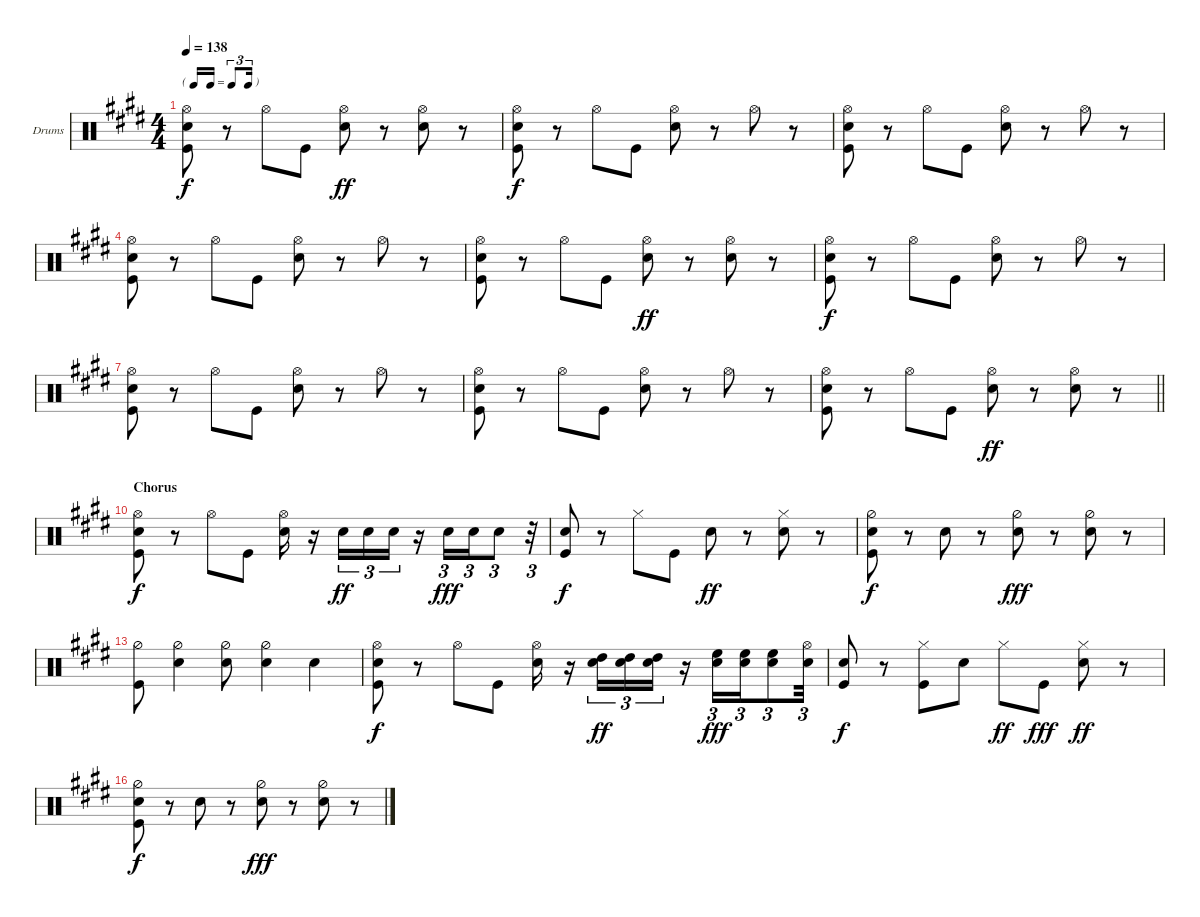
\bracketExtendMode nobrackets
\firstSystemTrackNameOrientation horizontal
\otherSystemsTrackNameOrientation horizontal
\defaultBarNumberDisplay FirstOfSystem
\track ("Drumkit" "Drums") {instrument percussion}
\staff {score}
\articulation defaults
\ts (4 4)
\tf triplet16th
\tempo 138
\clef neutral
\ks c#minor
("Hi-Hat (open)" "Snare (hit) 2" "Kick (hit)").8{dy f} r.8 "Hi-Hat (open)".8 "Kick (hit)".8 ("Snare (hit) 2" "Hi-Hat (open)").8{dy ff} r.8 ("Hi-Hat (open)" "Snare (hit) 2").8 r.8 |
\ks e
("Hi-Hat (open)" "Snare (hit) 2" "Kick (hit)").8{dy f} r.8 "Hi-Hat (open)".8 "Kick (hit)".8 ("Snare (hit) 2" "Hi-Hat (open)").8 r.8 "Hi-Hat (open)".8 r.8 |
\ks c#minor
("Hi-Hat (open)" "Snare (hit) 2" "Kick (hit)").8 r.8 "Hi-Hat (open)".8 "Kick (hit)".8 ("Snare (hit) 2" "Hi-Hat (open)").8 r.8 "Hi-Hat (open)".8 r.8 |
("Hi-Hat (open)" "Snare (hit) 2" "Kick (hit)").8 r.8 "Hi-Hat (open)".8 "Kick (hit)".8 ("Snare (hit) 2" "Hi-Hat (open)").8 r.8 "Hi-Hat (open)".8 r.8 |
("Hi-Hat (open)" "Snare (hit) 2" "Kick (hit)").8 r.8 "Hi-Hat (open)".8 "Kick (hit)".8 ("Snare (hit) 2" "Hi-Hat (open)").8{dy ff} r.8 ("Hi-Hat (open)" "Snare (hit) 2").8 r.8 |
\ks e
("Hi-Hat (open)" "Snare (hit) 2" "Kick (hit)").8{dy f} r.8 "Hi-Hat (open)".8 "Kick (hit)".8 ("Snare (hit) 2" "Hi-Hat (open)").8 r.8 "Hi-Hat (open)".8 r.8 |
\ks c#minor
("Hi-Hat (open)" "Snare (hit) 2" "Kick (hit)").8 r.8 "Hi-Hat (open)".8 "Kick (hit)".8 ("Snare (hit) 2" "Hi-Hat (open)").8 r.8 "Hi-Hat (open)".8 r.8 |
("Hi-Hat (open)" "Snare (hit) 2" "Kick (hit)").8 r.8 "Hi-Hat (open)".8 "Kick (hit)".8 ("Snare (hit) 2" "Hi-Hat (open)").8 r.8 "Hi-Hat (open)".8 r.8 |
\barLineRight lightlight
("Hi-Hat (open)" "Snare (hit) 2" "Kick (hit)").8 r.8 "Hi-Hat (open)".8 "Kick (hit)".8 ("Snare (hit) 2" "Hi-Hat (open)").8{dy ff} r.8 ("Hi-Hat (open)" "Snare (hit) 2").8 r.8 |
\section ("" "Chorus")
\ks e
("Hi-Hat (open)" "Snare (hit) 2" "Kick (hit)").8{dy f} r.8 "Hi-Hat (open)".8 "Kick (hit)".8 ("Snare (hit) 2" "Hi-Hat (open)").16 r.16 "Snare (hit) 2".16{tu (3 2) dy ff} "Snare (hit) 2".16{tu (3 2)} "Snare (hit) 2".16{tu (3 2)} r.16 "Snare (hit) 2".16{tu (3 2) dy fff} "Snare (hit) 2".16{tu (3 2)} "Snare (hit) 2".8{tu (3 2)} r.32{tu (3 2)} |
\ks c#minor
("Snare (hit) 2" "Kick (hit)").8{dy f} r.8 "Hi-Hat (closed)".8 "Kick (hit)".8 "Snare (hit) 2".8{dy ff} r.8 ("Hi-Hat (closed)" "Snare (hit) 2").8 r.8 |
("Hi-Hat (half)" "Snare (hit) 2" "Kick (hit)").8{dy f} r.8 "Snare (hit) 2".8 r.8 ("Snare (hit) 2" "Hi-Hat (half)").8{dy fff} r.8 ("Hi-Hat (half)" "Snare (hit) 2").8 r.8 |
("Kick (hit)" "Hi-Hat (half)").8 ("Snare (hit) 2" "Hi-Hat (half)").4 ("Snare (hit) 2" "Hi-Hat (half)").8 ("Snare (hit) 2" "Hi-Hat (half)").4 "Snare (hit) 2".4 |
\ks e
("Hi-Hat (open)" "Snare (hit) 2" "Kick (hit)").8{dy f} r.8 "Hi-Hat (open)".8 "Kick (hit)".8 ("Snare (hit) 2" "Hi-Hat (open)").16 r.16 ("Snare (hit) 2" "High Tom (hit)").16{tu (3 2) dy ff} ("Snare (hit) 2" "High Tom (hit)").16{tu (3 2)} ("Snare (hit) 2" "High Tom (hit)").16{tu (3 2)} r.16 ("Snare (hit) 2" "High Floor Tom (hit)").16{tu (3 2) dy fff} ("Snare (hit) 2" "High Floor Tom (hit)").16{tu (3 2)} ("Snare (hit) 2" "High Floor Tom (hit)").8{tu (3 2)} ("Snare (hit) 2" "Hi-Hat (open)").32{tu (3 2)} |
\ks c#minor
("Snare (hit) 2" "Kick (hit)").8{dy f} r.8 ("Hi-Hat (closed)" "Kick (hit)").8 "Snare (hit) 2".8 "Hi-Hat (closed)".8{dy ff} "Kick (hit)".8{dy fff} ("Hi-Hat (closed)" "Snare (hit) 2").8{dy ff} r.8 |
("Hi-Hat (half)" "Snare (hit) 2" "Kick (hit)").8{dy f} r.8 "Snare (hit) 2".8 r.8 ("Snare (hit) 2" "Hi-Hat (half)").8{dy fff} r.8 ("Hi-Hat (half)" "Snare (hit) 2").8 r.8
